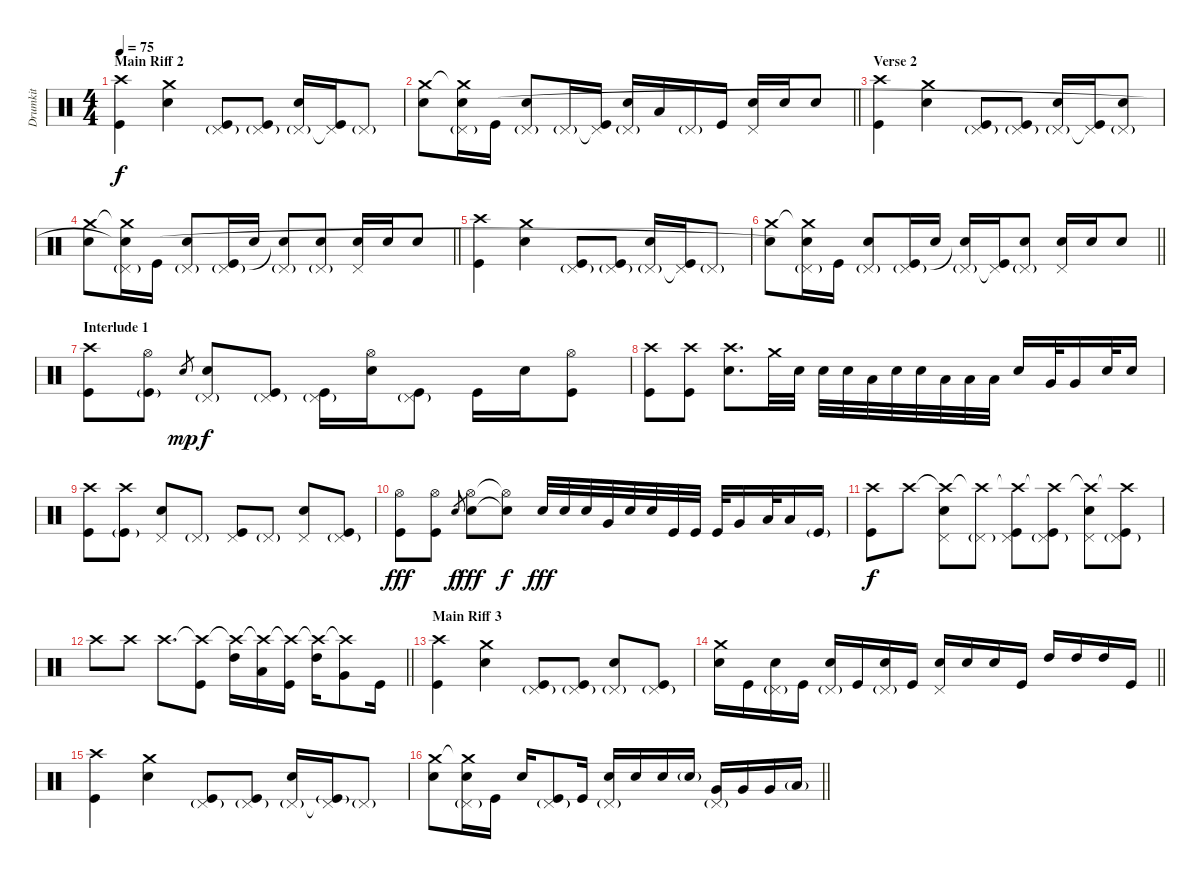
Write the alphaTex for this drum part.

\track ("Drumkit" "Drumkit") {instrument percussion}
\staff {score}
\articulation defaults
\ts (4 4)
\section ("" "Main Riff 2")
\tempo 75
\clef neutral
\ks c
("Crash high (hit)" "Kick (hit)").4{dy f} ("Crash medium (hit)" "Snare (hit) 2").4 ("Pedal Hi-Hat (hit)"{g} "Kick (hit)").8 ("Pedal Hi-Hat (hit)"{g} "Kick (hit)").8 ("Pedal Hi-Hat (hit)"{g} "Snare (hit) 2").16 ("Pedal Hi-Hat (hit)"{t} "Kick (hit)").16 "Pedal Hi-Hat (hit)"{g}.8 |
\barLineRight lightlight
("Crash medium (hit)" "Snare (hit) 2").8 ("Crash medium (hit)"{t} "Pedal Hi-Hat (hit)"{g} "Snare (hit) 2").16 "Kick (hit)".16 ("Pedal Hi-Hat (hit)"{g} "Snare (hit) 2").8 "Pedal Hi-Hat (hit)"{g}.16 ("Pedal Hi-Hat (hit)"{t} "Kick (hit)").16 ("Pedal Hi-Hat (hit)"{g} "Snare (hit) 2").16 "Low Tom (hit)".16 "Pedal Hi-Hat (hit)"{g}.16 "Kick (hit)".16 ("Pedal Hi-Hat (hit)" "Snare (hit) 2").16 "Snare (hit) 2".16 "Snare (hit) 2".8 |
\section ("" "Verse 2")
("Crash high (hit)" "Kick (hit)").4 ("Crash medium (hit)" "Snare (hit) 2").4 ("Pedal Hi-Hat (hit)"{g} "Kick (hit)").8 ("Pedal Hi-Hat (hit)"{g} "Kick (hit)").8 ("Pedal Hi-Hat (hit)"{g} "Snare (hit) 2").16 ("Pedal Hi-Hat (hit)"{t} "Kick (hit)").16 ("Pedal Hi-Hat (hit)"{g} "Snare (hit) 2").8 |
\barLineRight lightlight
("Crash medium (hit)" "Snare (hit) 2").8 ("Crash medium (hit)"{t} "Pedal Hi-Hat (hit)"{g} "Snare (hit) 2"{t}).16 "Kick (hit)".16 ("Pedal Hi-Hat (hit)"{g} "Snare (hit) 2").8 ("Pedal Hi-Hat (hit)"{g} "Kick (hit)").16 "Snare (hit) 2".16 ("Pedal Hi-Hat (hit)"{g} "Snare (hit) 2"{t}).8 ("Pedal Hi-Hat (hit)"{g} "Snare (hit) 2").8 ("Pedal Hi-Hat (hit)" "Snare (hit) 2").16 "Snare (hit) 2".16 "Snare (hit) 2".8 |
("Crash high (hit)" "Kick (hit)").4 ("Crash medium (hit)" "Snare (hit) 2").4 ("Pedal Hi-Hat (hit)"{g} "Kick (hit)").8 ("Pedal Hi-Hat (hit)"{g} "Kick (hit)").8 ("Pedal Hi-Hat (hit)"{g} "Snare (hit) 2").16 ("Pedal Hi-Hat (hit)"{t} "Kick (hit)").16 "Pedal Hi-Hat (hit)"{g}.8 |
\barLineRight lightlight
("Crash medium (hit)" "Snare (hit) 2").8 ("Crash medium (hit)"{t} "Pedal Hi-Hat (hit)"{g} "Snare (hit) 2"{t}).16 "Kick (hit)".16 ("Pedal Hi-Hat (hit)"{g} "Snare (hit) 2").8 ("Pedal Hi-Hat (hit)"{g} "Kick (hit)").16 "Snare (hit) 2".16 ("Pedal Hi-Hat (hit)"{g} "Snare (hit) 2"{t}).16 ("Pedal Hi-Hat (hit)"{t} "Kick (hit)").16 ("Pedal Hi-Hat (hit)"{g} "Snare (hit) 2").8 ("Pedal Hi-Hat (hit)" "Snare (hit) 2").16 "Snare (hit) 2".16 "Snare (hit) 2".8 |
\section ("" "Interlude 1")
("Crash high (hit)" "Kick (hit)").8 ("Hi-Hat (open)" "Kick (hit)"{g}).8 "Snare (hit)".8{gr dy mp} ("Pedal Hi-Hat (hit)"{g} "Snare (hit) 2").8{dy f} ("Pedal Hi-Hat (hit)"{g} "Kick (hit)").8 ("Pedal Hi-Hat (hit)"{g} "Kick (hit)").16 ("Hi-Hat (open)" "Snare (hit) 2").16 ("Pedal Hi-Hat (hit)"{g} "Kick (hit)").8 "Kick (hit)".16 "Snare (hit) 2".16 ("Hi-Hat (open)" "Kick (hit)").8 |
("Crash high (hit)" "Kick (hit)").8 ("Crash high (hit)" "Kick (hit)").8 ("Crash high (hit)" "Snare (hit) 2").8{d} "Crash medium (hit)".32 "Snare (hit) 2".32 "Snare (hit) 2".32 "Snare (hit) 2".32 "Low Tom (hit)".32 "Snare (hit) 2".32 "Snare (hit) 2".32 "Low Tom (hit)".32 "Low Tom (hit)".32 "Low Tom (hit)".32 "Snare (hit) 2".16 "Very Low Tom (hit)".32 "Very Low Tom (hit)".16 "Snare (hit) 2".32 "Snare (hit) 2".16 |
("Crash high (hit)" "Kick (hit)").8 ("Crash high (hit)" "Kick (hit)"{g}).8 ("Pedal Hi-Hat (hit)" "Snare (hit) 2").8 "Pedal Hi-Hat (hit)"{g}.8 ("Pedal Hi-Hat (hit)" "Kick (hit)").8 "Pedal Hi-Hat (hit)"{g}.8 ("Pedal Hi-Hat (hit)" "Snare (hit) 2").8 ("Pedal Hi-Hat (hit)"{g} "Kick (hit)").8 |
("Hi-Hat (open)" "Kick (hit)").8{dy fff} ("Hi-Hat (open)" "Kick (hit)").8 "Snare (hit)".8{gr dy f} ("Hi-Hat (open)" "Snare (hit) 2").8{dy fff} ("Hi-Hat (open)"{t} "Snare (hit) 2"{t}).8{dy f} "Snare (hit) 2".32{dy fff} "Snare (hit) 2".32 "Snare (hit) 2".32 "Very Low Tom (hit)".32 "Snare (hit) 2".32 "Snare (hit) 2".32 "Kick (hit)".32 "Kick (hit)".32 "Kick (hit)".32 "Very Low Tom (hit)".16 "Low Floor Tom (hit)".32 "Low Floor Tom (hit)".16 "Kick (hit)"{g}.16 |
("Crash high (hit)" "Kick (hit)").8{dy f} "Crash high (hit)".8 ("Crash high (hit)"{t} "Pedal Hi-Hat (hit)" "Snare (hit) 2").8 ("Crash high (hit)"{t} "Pedal Hi-Hat (hit)"{g}).8 ("Crash high (hit)"{t} "Pedal Hi-Hat (hit)" "Kick (hit)").8 ("Crash high (hit)"{t} "Pedal Hi-Hat (hit)"{g} "Kick (hit)").8 ("Crash high (hit)"{t} "Pedal Hi-Hat (hit)" "Snare (hit) 2").8 ("Crash high (hit)"{t} "Pedal Hi-Hat (hit)"{g} "Kick (hit)").8 |
\barLineRight lightlight "Crash high (hit)".8 "Crash high (hit)".8 "Crash high (hit)".8{d}
("Crash high (hit)"{t} "Kick (hit)").8 ("Crash high (hit)"{t} "High Tom (hit)").16 ("Crash high (hit)"{t} "Low Tom (hit)").16 ("Crash high (hit)"{t} "Kick (hit)").16 ("Crash high (hit)"{t} "High Tom (hit)").16 ("Crash high (hit)"{t} "Very Low Tom (hit)").8 "Kick (hit)".16 |
\section ("" "Main Riff 3")
("Crash high (hit)" "Kick (hit)").4 ("Crash medium (hit)" "Snare (hit) 2").4 ("Pedal Hi-Hat (hit)"{g} "Kick (hit)").8 ("Pedal Hi-Hat (hit)"{g} "Kick (hit)").8 ("Pedal Hi-Hat (hit)"{g} "Snare (hit) 2").8 ("Pedal Hi-Hat (hit)"{g} "Kick (hit)").8 |
\barLineRight lightlight
("Crash medium (hit)" "Snare (hit) 2").16 "Kick (hit)".16 ("Pedal Hi-Hat (hit)"{g} "Snare (hit) 2").16 "Kick (hit)".16 ("Pedal Hi-Hat (hit)"{g} "Snare (hit) 2").16 "Kick (hit)".16 ("Pedal Hi-Hat (hit)"{g} "Snare (hit) 2").16 "Kick (hit)".16 ("Pedal Hi-Hat (hit)" "Snare (hit) 2").16 "Snare (hit) 2".16 "Snare (hit) 2".16 "Kick (hit)".16 "High Tom (hit)".16 "High Tom (hit)".16 "High Tom (hit)".16 "Kick (hit)".16 |
("Crash high (hit)" "Kick (hit)").4 ("Crash medium (hit)" "Snare (hit) 2").4 ("Pedal Hi-Hat (hit)"{g} "Kick (hit)").8 ("Pedal Hi-Hat (hit)"{g} "Kick (hit)").8 ("Pedal Hi-Hat (hit)"{g} "Snare (hit) 2").16 ("Pedal Hi-Hat (hit)"{t} "Kick (hit)"{g}).16 "Pedal Hi-Hat (hit)"{g}.8 |
\barLineRight lightlight
("Crash medium (hit)" "Snare (hit) 2").8 ("Crash medium (hit)"{t} "Pedal Hi-Hat (hit)"{g} "Snare (hit) 2").16 "Kick (hit)".16 "Snare (hit) 2".16 ("Pedal Hi-Hat (hit)"{g} "Kick (hit)").8 "Kick (hit)".16 ("Pedal Hi-Hat (hit)"{g} "Snare (hit) 2").16 "Snare (hit) 2".16 "Snare (hit) 2".16 "Snare (hit) 2"{g}.16 ("Pedal Hi-Hat (hit)"{g} "Very Low Tom (hit)").16 "Very Low Tom (hit)".16 "Very Low Tom (hit)".16 "Low Floor Tom (hit)"{g}.16
